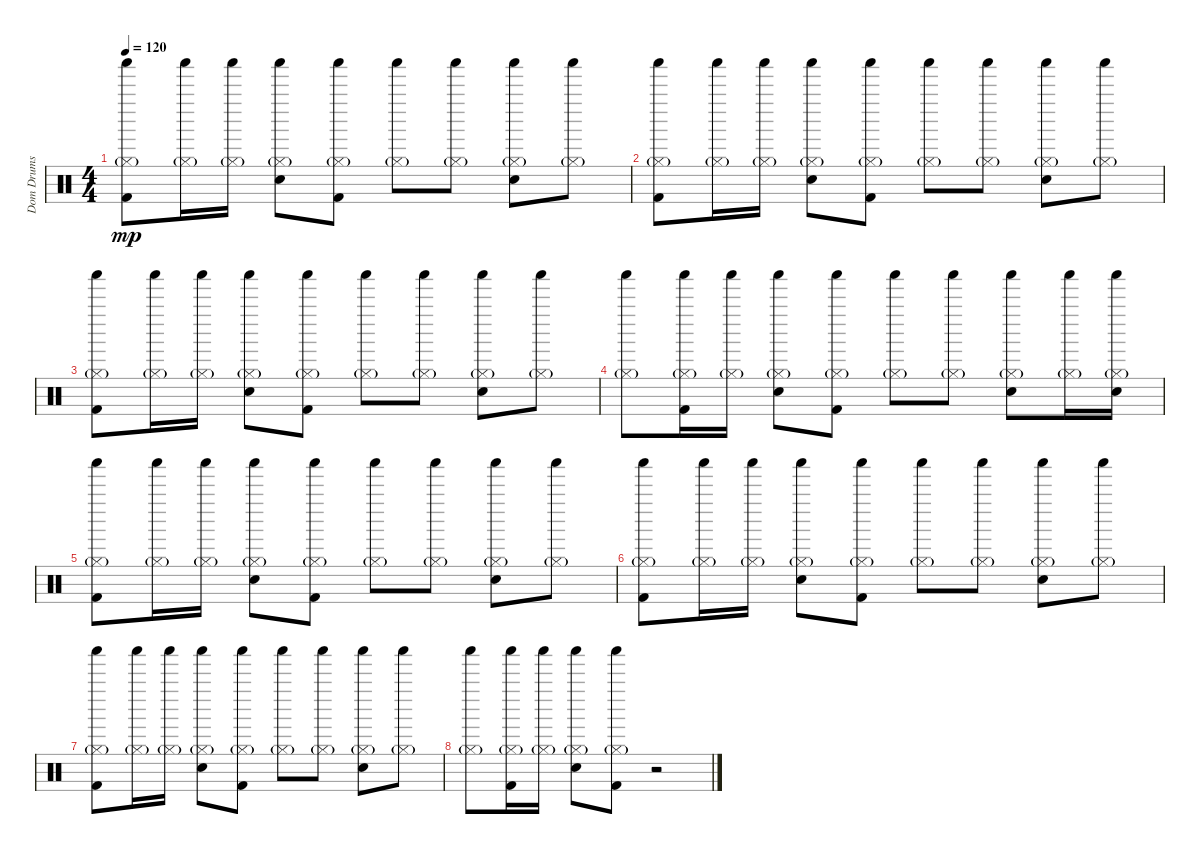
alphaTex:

\track ("Dom Drums" "Dom Drums") {instrument percussion}
\staff {score}
\articulation defaults
\ts (4 4)
\tempo 120
\clef neutral
\ks c
("Shaker (hit)" "Hi-Hat (closed)"{g} "Kick (hit) 2").8{dy mp} ("Shaker (hit)" "Hi-Hat (closed)"{g}).16 ("Shaker (hit)" "Hi-Hat (closed)"{g}).16 ("Shaker (hit)" "Hi-Hat (closed)"{g} "Electric Snare (hit)").8 ("Shaker (hit)" "Hi-Hat (closed)"{g} "Kick (hit) 2").8 ("Shaker (hit)" "Hi-Hat (closed)"{g}).8 ("Shaker (hit)" "Hi-Hat (closed)"{g}).8 ("Shaker (hit)" "Hi-Hat (closed)"{g} "Electric Snare (hit)").8 ("Shaker (hit)" "Hi-Hat (closed)"{g}).8 |
("Shaker (hit)" "Hi-Hat (closed)"{g} "Kick (hit) 2").8 ("Shaker (hit)" "Hi-Hat (closed)"{g}).16 ("Shaker (hit)" "Hi-Hat (closed)"{g}).16 ("Shaker (hit)" "Hi-Hat (closed)"{g} "Electric Snare (hit)").8 ("Shaker (hit)" "Hi-Hat (closed)"{g} "Kick (hit) 2").8 ("Shaker (hit)" "Hi-Hat (closed)"{g}).8 ("Shaker (hit)" "Hi-Hat (closed)"{g}).8 ("Shaker (hit)" "Hi-Hat (closed)"{g} "Electric Snare (hit)").8 ("Shaker (hit)" "Hi-Hat (closed)"{g}).8 |
("Shaker (hit)" "Hi-Hat (closed)"{g} "Kick (hit) 2").8 ("Shaker (hit)" "Hi-Hat (closed)"{g}).16 ("Shaker (hit)" "Hi-Hat (closed)"{g}).16 ("Shaker (hit)" "Hi-Hat (closed)"{g} "Electric Snare (hit)").8 ("Shaker (hit)" "Hi-Hat (closed)"{g} "Kick (hit) 2").8 ("Shaker (hit)" "Hi-Hat (closed)"{g}).8 ("Shaker (hit)" "Hi-Hat (closed)"{g}).8 ("Shaker (hit)" "Hi-Hat (closed)"{g} "Electric Snare (hit)").8 ("Shaker (hit)" "Hi-Hat (closed)"{g}).8 |
("Shaker (hit)" "Hi-Hat (closed)"{g}).8 ("Shaker (hit)" "Hi-Hat (closed)"{g} "Kick (hit) 2").16 ("Shaker (hit)" "Hi-Hat (closed)"{g}).16 ("Shaker (hit)" "Hi-Hat (closed)"{g} "Electric Snare (hit)").8 ("Shaker (hit)" "Hi-Hat (closed)"{g} "Kick (hit) 2").8 ("Shaker (hit)" "Hi-Hat (closed)"{g}).8 ("Shaker (hit)" "Hi-Hat (closed)"{g}).8 ("Shaker (hit)" "Hi-Hat (closed)"{g} "Electric Snare (hit)").8 ("Shaker (hit)" "Hi-Hat (closed)"{g}).16 ("Shaker (hit)" "Hi-Hat (closed)"{g} "Electric Snare (hit)").16 |
("Shaker (hit)" "Hi-Hat (closed)"{g} "Kick (hit) 2").8 ("Shaker (hit)" "Hi-Hat (closed)"{g}).16 ("Shaker (hit)" "Hi-Hat (closed)"{g}).16 ("Shaker (hit)" "Hi-Hat (closed)"{g} "Electric Snare (hit)").8 ("Shaker (hit)" "Hi-Hat (closed)"{g} "Kick (hit) 2").8 ("Shaker (hit)" "Hi-Hat (closed)"{g}).8 ("Shaker (hit)" "Hi-Hat (closed)"{g}).8 ("Shaker (hit)" "Hi-Hat (closed)"{g} "Electric Snare (hit)").8 ("Shaker (hit)" "Hi-Hat (closed)"{g}).8 |
("Shaker (hit)" "Hi-Hat (closed)"{g} "Kick (hit) 2").8 ("Shaker (hit)" "Hi-Hat (closed)"{g}).16 ("Shaker (hit)" "Hi-Hat (closed)"{g}).16 ("Shaker (hit)" "Hi-Hat (closed)"{g} "Electric Snare (hit)").8 ("Shaker (hit)" "Hi-Hat (closed)"{g} "Kick (hit) 2").8 ("Shaker (hit)" "Hi-Hat (closed)"{g}).8 ("Shaker (hit)" "Hi-Hat (closed)"{g}).8 ("Shaker (hit)" "Hi-Hat (closed)"{g} "Electric Snare (hit)").8 ("Shaker (hit)" "Hi-Hat (closed)"{g}).8 |
("Shaker (hit)" "Hi-Hat (closed)"{g} "Kick (hit) 2").8 ("Shaker (hit)" "Hi-Hat (closed)"{g}).16 ("Shaker (hit)" "Hi-Hat (closed)"{g}).16 ("Shaker (hit)" "Hi-Hat (closed)"{g} "Electric Snare (hit)").8 ("Shaker (hit)" "Hi-Hat (closed)"{g} "Kick (hit) 2").8 ("Shaker (hit)" "Hi-Hat (closed)"{g}).8 ("Shaker (hit)" "Hi-Hat (closed)"{g}).8 ("Shaker (hit)" "Hi-Hat (closed)"{g} "Electric Snare (hit)").8 ("Shaker (hit)" "Hi-Hat (closed)"{g}).8 |
("Shaker (hit)" "Hi-Hat (closed)"{g}).8 ("Shaker (hit)" "Hi-Hat (closed)"{g} "Kick (hit) 2").16 ("Shaker (hit)" "Hi-Hat (closed)"{g}).16 ("Shaker (hit)" "Hi-Hat (closed)"{g} "Electric Snare (hit)").8 ("Shaker (hit)" "Hi-Hat (closed)"{g} "Kick (hit) 2").8 r.2
